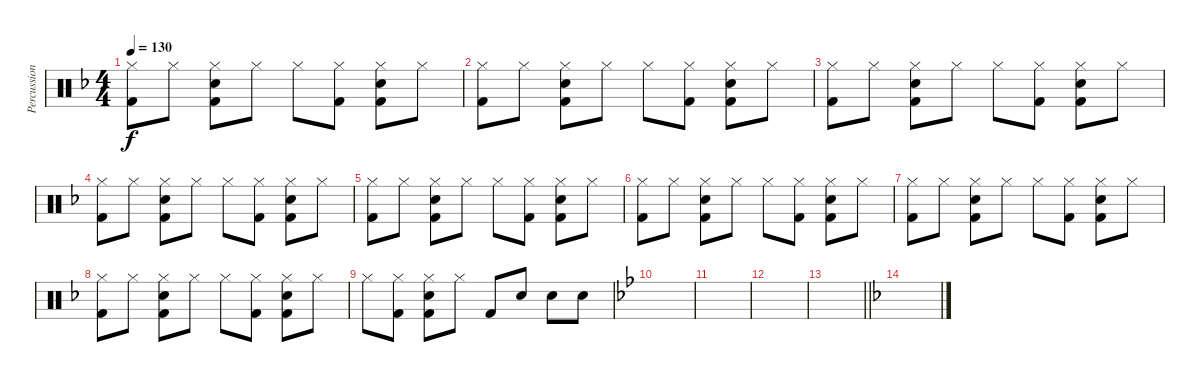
\track ("Percussion" "Percussion") {instrument percussion}
\staff {score}
\articulation defaults
\ts (4 4)
\tempo 130
\clef neutral
\ks f
("Hi-Hat (closed)" "Kick (hit) 2").8{dy f} "Hi-Hat (closed)".8 ("Hi-Hat (closed)" "Snare (hit) 2" "Kick (hit) 2").8 "Hi-Hat (closed)".8 "Hi-Hat (closed)".8 ("Hi-Hat (closed)" "Kick (hit) 2").8 ("Hi-Hat (closed)" "Snare (hit) 2" "Kick (hit) 2").8 "Hi-Hat (closed)".8 |
("Hi-Hat (closed)" "Kick (hit) 2").8 "Hi-Hat (closed)".8 ("Hi-Hat (closed)" "Snare (hit) 2" "Kick (hit) 2").8 "Hi-Hat (closed)".8 "Hi-Hat (closed)".8 ("Hi-Hat (closed)" "Kick (hit) 2").8 ("Hi-Hat (closed)" "Snare (hit) 2" "Kick (hit) 2").8 "Hi-Hat (closed)".8 |
("Hi-Hat (closed)" "Kick (hit) 2").8 "Hi-Hat (closed)".8 ("Hi-Hat (closed)" "Snare (hit) 2" "Kick (hit) 2").8 "Hi-Hat (closed)".8 "Hi-Hat (closed)".8 ("Hi-Hat (closed)" "Kick (hit) 2").8 ("Hi-Hat (closed)" "Snare (hit) 2" "Kick (hit) 2").8 "Hi-Hat (closed)".8 |
("Hi-Hat (closed)" "Kick (hit) 2").8 "Hi-Hat (closed)".8 ("Hi-Hat (closed)" "Snare (hit) 2" "Kick (hit) 2").8 "Hi-Hat (closed)".8 "Hi-Hat (closed)".8 ("Hi-Hat (closed)" "Kick (hit) 2").8 ("Hi-Hat (closed)" "Snare (hit) 2" "Kick (hit) 2").8 "Hi-Hat (closed)".8 |
("Hi-Hat (closed)" "Kick (hit) 2").8 "Hi-Hat (closed)".8 ("Hi-Hat (closed)" "Snare (hit) 2" "Kick (hit) 2").8 "Hi-Hat (closed)".8 "Hi-Hat (closed)".8 ("Hi-Hat (closed)" "Kick (hit) 2").8 ("Hi-Hat (closed)" "Snare (hit) 2" "Kick (hit) 2").8 "Hi-Hat (closed)".8 |
("Hi-Hat (closed)" "Kick (hit) 2").8 "Hi-Hat (closed)".8 ("Hi-Hat (closed)" "Snare (hit) 2" "Kick (hit) 2").8 "Hi-Hat (closed)".8 "Hi-Hat (closed)".8 ("Hi-Hat (closed)" "Kick (hit) 2").8 ("Hi-Hat (closed)" "Snare (hit) 2" "Kick (hit) 2").8 "Hi-Hat (closed)".8 |
("Hi-Hat (closed)" "Kick (hit) 2").8 "Hi-Hat (closed)".8 ("Hi-Hat (closed)" "Snare (hit) 2" "Kick (hit) 2").8 "Hi-Hat (closed)".8 "Hi-Hat (closed)".8 ("Hi-Hat (closed)" "Kick (hit) 2").8 ("Hi-Hat (closed)" "Snare (hit) 2" "Kick (hit) 2").8 "Hi-Hat (closed)".8 |
("Hi-Hat (closed)" "Kick (hit) 2").8 "Hi-Hat (closed)".8 ("Hi-Hat (closed)" "Snare (hit) 2" "Kick (hit) 2").8 "Hi-Hat (closed)".8 "Hi-Hat (closed)".8 ("Hi-Hat (closed)" "Kick (hit) 2").8 ("Hi-Hat (closed)" "Snare (hit) 2" "Kick (hit) 2").8 "Hi-Hat (closed)".8 |
"Hi-Hat (closed)".8 ("Hi-Hat (closed)" "Kick (hit) 2").8 ("Hi-Hat (closed)" "Snare (hit) 2" "Kick (hit) 2").8 "Hi-Hat (closed)".8 "Kick (hit) 2".8 "Snare (hit) 2".8 "Snare (hit) 2".8 "Snare (hit) 2".8 |
\ks bb
|
|
|
\barLineRight lightlight
|
\ks f
